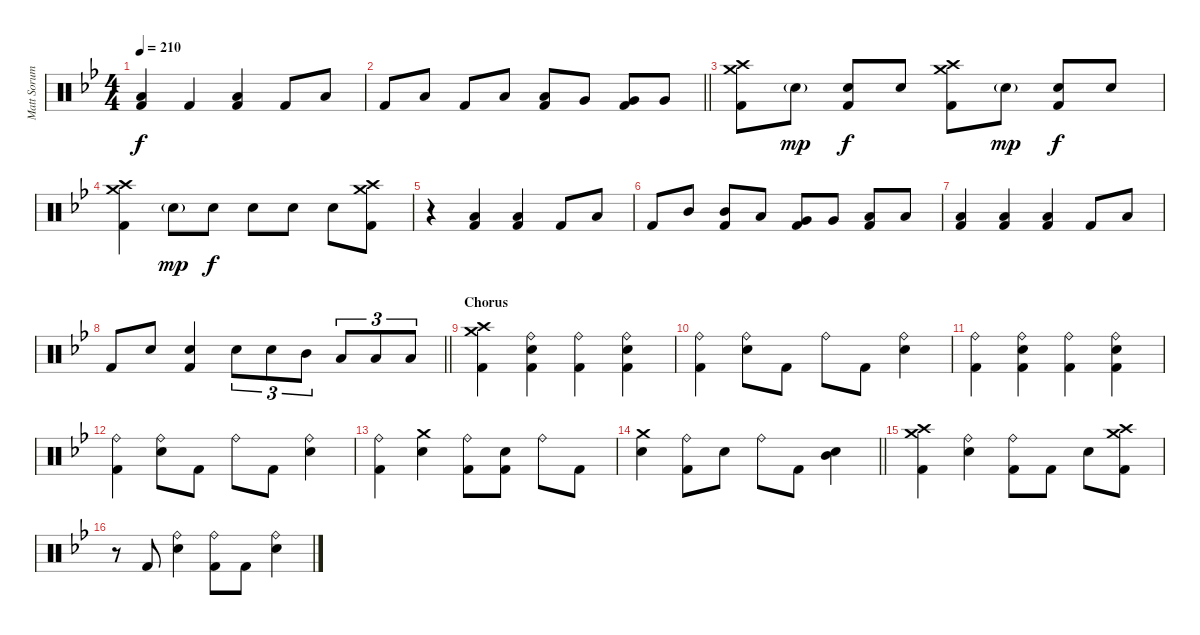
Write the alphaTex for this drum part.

\track ("Matt Sorum - Drums" "Matt Sorum") {instrument percussion}
\staff {score}
\articulation defaults
\ts (4 4)
\tempo 210
\clef neutral
\ks bb
("Low Tom (hit)" "Kick (hit) 2").4{dy f} "Kick (hit) 2".4 ("Low Tom (hit)" "Kick (hit) 2").4 "Kick (hit) 2".8 "Low Tom (hit)".8 |
\barLineRight lightlight "Kick (hit) 2".8 "Low Tom (hit)".8 "Kick (hit) 2".8 "Low Tom (hit)".8
("Low Tom (hit)" "Kick (hit) 2").8 "Very Low Tom (hit)".8 ("Very Low Tom (hit)" "Kick (hit) 2").8 "Very Low Tom (hit)".8 |
("Crash medium (hit)" "Crash high (hit)" "Kick (hit) 2").8 "Snare (hit) 2"{g}.8{dy mp} ("Snare (hit) 2" "Kick (hit) 2").8{dy f} "Snare (hit) 2".8 ("Crash medium (hit)" "Crash high (hit)" "Kick (hit) 2").8 "Snare (hit) 2"{g}.8{dy mp} ("Snare (hit) 2" "Kick (hit) 2").8{dy f} "Snare (hit) 2".8 |
("Crash medium (hit)" "Crash high (hit)" "Kick (hit) 2").4 "Snare (hit) 2"{g}.8{dy mp} "Snare (hit) 2".8{dy f} "Snare (hit) 2".8 "Snare (hit) 2".8 "Snare (hit) 2".8 ("Crash medium (hit)" "Crash high (hit)" "Kick (hit) 2").8 |
r.4 ("Low Tom (hit)" "Kick (hit) 2").4 ("Low Tom (hit)" "Kick (hit) 2").4 "Kick (hit) 2".8 "Low Tom (hit)".8 |
"Kick (hit) 2".8 "Mid Tom (hit)".8 ("Mid Tom (hit)" "Kick (hit) 2").8 "Low Tom (hit)".8 ("Very Low Tom (hit)" "Kick (hit) 2").8 "Very Low Tom (hit)".8 ("Low Floor Tom (hit)" "Kick (hit) 2").8 "Low Floor Tom (hit)".8 |
("Low Tom (hit)" "Kick (hit) 2").4 ("Low Tom (hit)" "Kick (hit) 2").4 ("Low Tom (hit)" "Kick (hit) 2").4 "Kick (hit) 2".8 "Low Tom (hit)".8 |
\barLineRight lightlight "Kick (hit) 2".8 "Snare (hit) 2".8
("Snare (hit) 2" "Kick (hit) 2").4 "Snare (hit) 2".8{tu (3 2)} "Snare (hit) 2".8{tu (3 2)} "Mid Tom (hit)".8{tu (3 2)} "Low Tom (hit)".8{tu (3 2)} "Low Tom (hit)".8{tu (3 2)} "Low Tom (hit)".8{tu (3 2)} |
\section ("" "Chorus")
("Crash medium (hit)" "Crash high (hit)" "Kick (hit) 2").4 ("Ride (bell)" "Snare (hit) 2" "Kick (hit) 2").4 ("Ride (bell)" "Kick (hit) 2").4 ("Ride (bell)" "Snare (hit) 2" "Kick (hit) 2").4 |
("Ride (bell)" "Kick (hit) 2").4 ("Ride (bell)" "Snare (hit) 2").8 "Kick (hit) 2".8 "Ride (bell)".8 "Kick (hit) 2".8 ("Ride (bell)" "Snare (hit) 2").4 |
("Ride (bell)" "Kick (hit) 2").4 ("Ride (bell)" "Snare (hit) 2" "Kick (hit) 2").4 ("Ride (bell)" "Kick (hit) 2").4 ("Ride (bell)" "Snare (hit) 2" "Kick (hit) 2").4 |
("Ride (bell)" "Kick (hit) 2").4 ("Ride (bell)" "Snare (hit) 2").8 "Kick (hit) 2".8 "Ride (bell)".8 "Kick (hit) 2".8 ("Ride (bell)" "Snare (hit) 2").4 |
("Ride (bell)" "Kick (hit) 2").4 ("Crash medium (hit)" "Snare (hit) 2").4 ("Ride (bell)" "Kick (hit) 2").8 ("Snare (hit) 2" "Kick (hit) 2").8 "Ride (bell)".8 "Kick (hit) 2".8 |
\barLineRight lightlight
("Crash medium (hit)" "Snare (hit) 2").4 ("Ride (bell)" "Kick (hit) 2").8 "Snare (hit) 2".8 "Ride (bell)".8 "Kick (hit) 2".8 ("Mid Tom (hit)" "Snare (hit) 2").4 |
("Crash medium (hit)" "Crash high (hit)" "Kick (hit) 2").4 ("Ride (bell)" "Snare (hit) 2").4 ("Ride (bell)" "Kick (hit) 2").8 "Kick (hit) 2".8 "Snare (hit) 2".8 ("Crash medium (hit)" "Crash high (hit)" "Kick (hit) 2").8 |
r.8 "Kick (hit) 2".8 ("Ride (bell)" "Snare (hit) 2").4 ("Ride (bell)" "Kick (hit) 2").8 "Kick (hit) 2".8 ("Ride (bell)" "Snare (hit) 2").4
